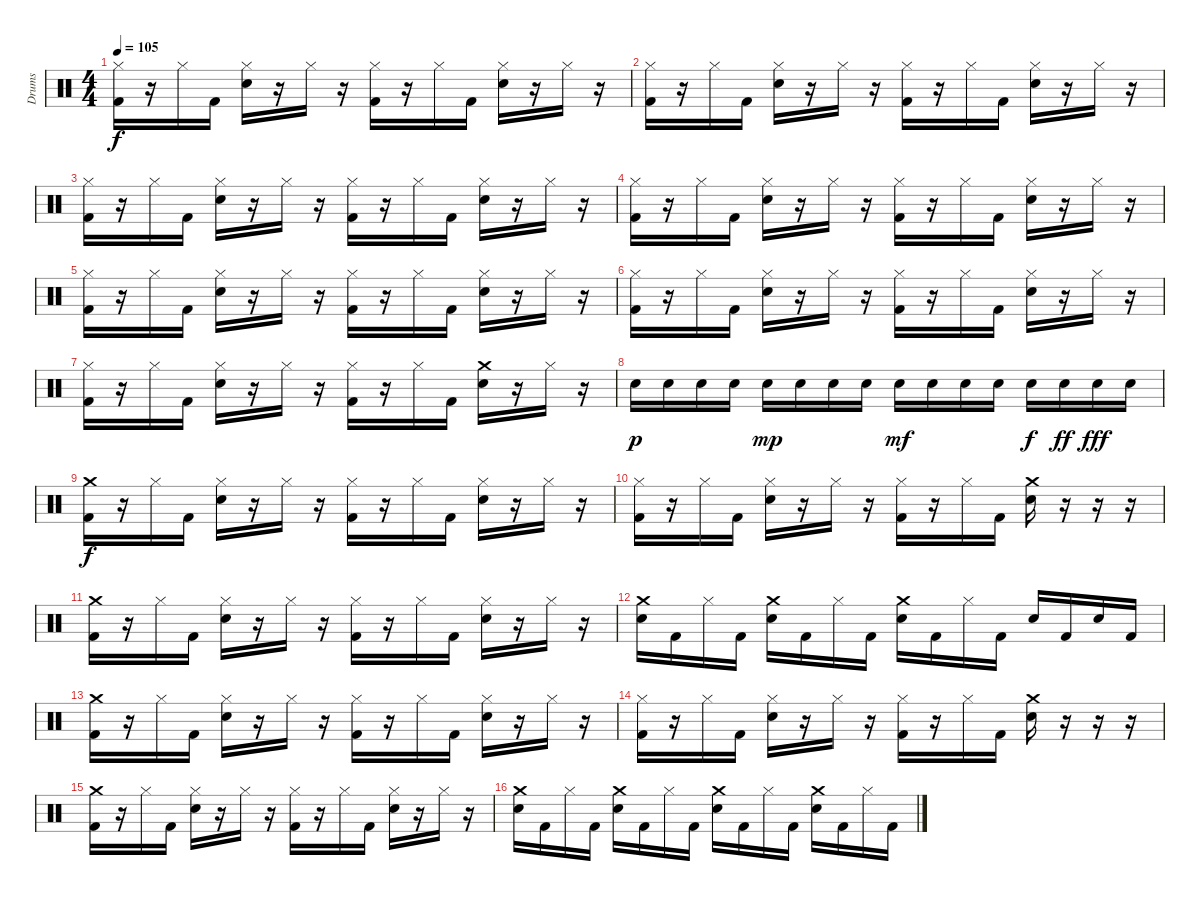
\track ("Drums" "Drums") {instrument percussion}
\staff {score}
\articulation defaults
\ts (4 4)
\tempo 105
\clef neutral
\ks c
("Hi-Hat (closed)" "Kick (hit) 2").16{dy f} r.16 "Hi-Hat (closed)".16 "Kick (hit) 2".16 ("Hi-Hat (closed)" "Snare (hit) 2").16 r.16 "Hi-Hat (closed)".16 r.16 ("Hi-Hat (closed)" "Kick (hit) 2").16 r.16 "Hi-Hat (closed)".16 "Kick (hit) 2".16 ("Hi-Hat (closed)" "Snare (hit) 2").16 r.16 "Hi-Hat (closed)".16 r.16 |
("Hi-Hat (closed)" "Kick (hit) 2").16 r.16 "Hi-Hat (closed)".16 "Kick (hit) 2".16 ("Hi-Hat (closed)" "Snare (hit) 2").16 r.16 "Hi-Hat (closed)".16 r.16 ("Hi-Hat (closed)" "Kick (hit) 2").16 r.16 "Hi-Hat (closed)".16 "Kick (hit) 2".16 ("Hi-Hat (closed)" "Snare (hit) 2").16 r.16 "Hi-Hat (closed)".16 r.16 |
("Hi-Hat (closed)" "Kick (hit) 2").16 r.16 "Hi-Hat (closed)".16 "Kick (hit) 2".16 ("Hi-Hat (closed)" "Snare (hit) 2").16 r.16 "Hi-Hat (closed)".16 r.16 ("Hi-Hat (closed)" "Kick (hit) 2").16 r.16 "Hi-Hat (closed)".16 "Kick (hit) 2".16 ("Hi-Hat (closed)" "Snare (hit) 2").16 r.16 "Hi-Hat (closed)".16 r.16 |
("Hi-Hat (closed)" "Kick (hit) 2").16 r.16 "Hi-Hat (closed)".16 "Kick (hit) 2".16 ("Hi-Hat (closed)" "Snare (hit) 2").16 r.16 "Hi-Hat (closed)".16 r.16 ("Hi-Hat (closed)" "Kick (hit) 2").16 r.16 "Hi-Hat (closed)".16 "Kick (hit) 2".16 ("Hi-Hat (closed)" "Snare (hit) 2").16 r.16 "Hi-Hat (closed)".16 r.16 |
("Hi-Hat (closed)" "Kick (hit) 2").16 r.16 "Hi-Hat (closed)".16 "Kick (hit) 2".16 ("Hi-Hat (closed)" "Snare (hit) 2").16 r.16 "Hi-Hat (closed)".16 r.16 ("Hi-Hat (closed)" "Kick (hit) 2").16 r.16 "Hi-Hat (closed)".16 "Kick (hit) 2".16 ("Hi-Hat (closed)" "Snare (hit) 2").16 r.16 "Hi-Hat (closed)".16 r.16 |
("Hi-Hat (closed)" "Kick (hit) 2").16 r.16 "Hi-Hat (closed)".16 "Kick (hit) 2".16 ("Hi-Hat (closed)" "Snare (hit) 2").16 r.16 "Hi-Hat (closed)".16 r.16 ("Hi-Hat (closed)" "Kick (hit) 2").16 r.16 "Hi-Hat (closed)".16 "Kick (hit) 2".16 ("Hi-Hat (closed)" "Snare (hit) 2").16 r.16 "Hi-Hat (closed)".16 r.16 |
("Hi-Hat (closed)" "Kick (hit) 2").16 r.16 "Hi-Hat (closed)".16 "Kick (hit) 2".16 ("Hi-Hat (closed)" "Snare (hit) 2").16 r.16 "Hi-Hat (closed)".16 r.16 ("Hi-Hat (closed)" "Kick (hit) 2").16 r.16 "Hi-Hat (closed)".16 "Kick (hit) 2".16 ("Crash medium (hit)" "Snare (hit) 2").16 r.16 "Hi-Hat (closed)".16 r.16 |
"Snare (hit) 2".16{dy p} "Snare (hit) 2".16 "Snare (hit) 2".16 "Snare (hit) 2".16 "Snare (hit) 2".16{dy mp} "Snare (hit) 2".16 "Snare (hit) 2".16 "Snare (hit) 2".16 "Snare (hit) 2".16{dy mf} "Snare (hit) 2".16 "Snare (hit) 2".16 "Snare (hit) 2".16 "Snare (hit) 2".16{dy f} "Snare (hit) 2".16{dy ff} "Snare (hit) 2".16{dy fff} "Snare (hit) 2".16 |
("Crash medium (hit)" "Kick (hit) 2").16{dy f} r.16 "Hi-Hat (closed)".16 "Kick (hit) 2".16 ("Hi-Hat (closed)" "Snare (hit) 2").16 r.16 "Hi-Hat (closed)".16 r.16 ("Hi-Hat (closed)" "Kick (hit) 2").16 r.16 "Hi-Hat (closed)".16 "Kick (hit) 2".16 ("Hi-Hat (closed)" "Snare (hit) 2").16 r.16 "Hi-Hat (closed)".16 r.16 |
("Hi-Hat (closed)" "Kick (hit) 2").16 r.16 "Hi-Hat (closed)".16 "Kick (hit) 2".16 ("Hi-Hat (closed)" "Snare (hit) 2").16 r.16 "Hi-Hat (closed)".16 r.16 ("Hi-Hat (closed)" "Kick (hit) 2").16 r.16 "Hi-Hat (closed)".16 "Kick (hit) 2".16 ("Crash medium (hit)" "Snare (hit) 2").16 r.16 r.16 r.16 |
("Crash medium (hit)" "Kick (hit) 2").16 r.16 "Hi-Hat (closed)".16 "Kick (hit) 2".16 ("Hi-Hat (closed)" "Snare (hit) 2").16 r.16 "Hi-Hat (closed)".16 r.16 ("Hi-Hat (closed)" "Kick (hit) 2").16 r.16 "Hi-Hat (closed)".16 "Kick (hit) 2".16 ("Hi-Hat (closed)" "Snare (hit) 2").16 r.16 "Hi-Hat (closed)".16 r.16 |
("Crash medium (hit)" "Snare (hit) 2").16 "Kick (hit) 2".16 "Hi-Hat (closed)".16 "Kick (hit) 2".16 ("Crash medium (hit)" "Snare (hit) 2").16 "Kick (hit) 2".16 "Hi-Hat (closed)".16 "Kick (hit) 2".16 ("Crash medium (hit)" "Snare (hit) 2").16 "Kick (hit) 2".16 "Hi-Hat (closed)".16 "Kick (hit) 2".16 "Snare (hit) 2".16 "Kick (hit) 2".16 "Snare (hit) 2".16 "Kick (hit) 2".16 |
("Crash medium (hit)" "Kick (hit) 2").16 r.16 "Hi-Hat (closed)".16 "Kick (hit) 2".16 ("Hi-Hat (closed)" "Snare (hit) 2").16 r.16 "Hi-Hat (closed)".16 r.16 ("Hi-Hat (closed)" "Kick (hit) 2").16 r.16 "Hi-Hat (closed)".16 "Kick (hit) 2".16 ("Hi-Hat (closed)" "Snare (hit) 2").16 r.16 "Hi-Hat (closed)".16 r.16 |
("Hi-Hat (closed)" "Kick (hit) 2").16 r.16 "Hi-Hat (closed)".16 "Kick (hit) 2".16 ("Hi-Hat (closed)" "Snare (hit) 2").16 r.16 "Hi-Hat (closed)".16 r.16 ("Hi-Hat (closed)" "Kick (hit) 2").16 r.16 "Hi-Hat (closed)".16 "Kick (hit) 2".16 ("Crash medium (hit)" "Snare (hit) 2").16 r.16 r.16 r.16 |
("Crash medium (hit)" "Kick (hit) 2").16 r.16 "Hi-Hat (closed)".16 "Kick (hit) 2".16 ("Hi-Hat (closed)" "Snare (hit) 2").16 r.16 "Hi-Hat (closed)".16 r.16 ("Hi-Hat (closed)" "Kick (hit) 2").16 r.16 "Hi-Hat (closed)".16 "Kick (hit) 2".16 ("Hi-Hat (closed)" "Snare (hit) 2").16 r.16 "Hi-Hat (closed)".16 r.16 |
("Crash medium (hit)" "Snare (hit) 2").16 "Kick (hit) 2".16 "Hi-Hat (closed)".16 "Kick (hit) 2".16 ("Crash medium (hit)" "Snare (hit) 2").16 "Kick (hit) 2".16 "Hi-Hat (closed)".16 "Kick (hit) 2".16 ("Crash medium (hit)" "Snare (hit) 2").16 "Kick (hit) 2".16 "Hi-Hat (closed)".16 "Kick (hit) 2".16 ("Crash medium (hit)" "Snare (hit) 2").16 "Kick (hit) 2".16 "Hi-Hat (closed)".16 "Kick (hit) 2".16
